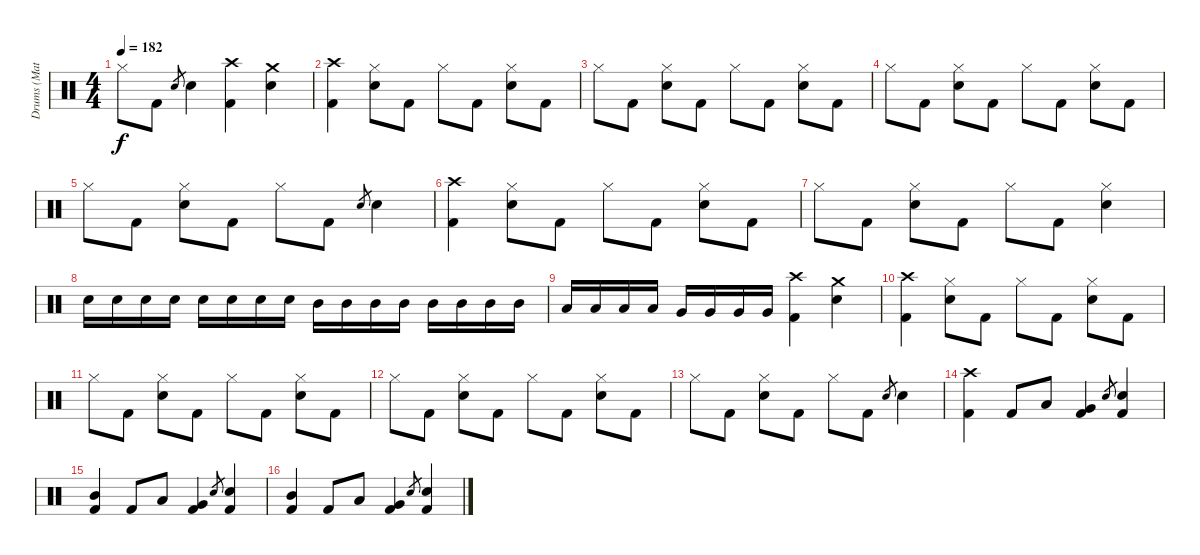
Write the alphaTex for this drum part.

\track ("Drums (Matt)" "Drums (Mat") {instrument percussion}
\staff {score}
\articulation defaults
\ts (4 4)
\tempo 182
\clef neutral
\ks c "Hi-Hat (closed)".8{dy f} "Kick (hit) 2".8 "Snare (hit) 2".8{gr} "Snare (hit) 2".4
("Crash high (hit)" "Kick (hit) 2").4 ("Crash medium (hit)" "Snare (hit) 2").4 |
("Crash high (hit)" "Kick (hit) 2").4 ("Hi-Hat (closed)" "Snare (hit) 2").8 "Kick (hit) 2".8 "Hi-Hat (closed)".8 "Kick (hit) 2".8 ("Hi-Hat (closed)" "Snare (hit) 2").8 "Kick (hit) 2".8 |
"Hi-Hat (closed)".8 "Kick (hit) 2".8 ("Hi-Hat (closed)" "Snare (hit) 2").8 "Kick (hit) 2".8 "Hi-Hat (closed)".8 "Kick (hit) 2".8 ("Hi-Hat (closed)" "Snare (hit) 2").8 "Kick (hit) 2".8 |
"Hi-Hat (closed)".8 "Kick (hit) 2".8 ("Hi-Hat (closed)" "Snare (hit) 2").8 "Kick (hit) 2".8 "Hi-Hat (closed)".8 "Kick (hit) 2".8 ("Hi-Hat (closed)" "Snare (hit) 2").8 "Kick (hit) 2".8 |
"Hi-Hat (closed)".8 "Kick (hit) 2".8 ("Hi-Hat (closed)" "Snare (hit) 2").8 "Kick (hit) 2".8 "Hi-Hat (closed)".8 "Kick (hit) 2".8 "Snare (hit) 2".8{gr} "Snare (hit) 2".4 |
("Crash high (hit)" "Kick (hit) 2").4 ("Hi-Hat (closed)" "Snare (hit) 2").8 "Kick (hit) 2".8 "Hi-Hat (closed)".8 "Kick (hit) 2".8 ("Hi-Hat (closed)" "Snare (hit) 2").8 "Kick (hit) 2".8 |
"Hi-Hat (closed)".8 "Kick (hit) 2".8 ("Hi-Hat (closed)" "Snare (hit) 2").8 "Kick (hit) 2".8 "Hi-Hat (closed)".8 "Kick (hit) 2".8 ("Hi-Hat (closed)" "Snare (hit) 2").4 |
"Snare (hit) 2".16 "Snare (hit) 2".16 "Snare (hit) 2".16 "Snare (hit) 2".16 "Snare (hit) 2".16 "Snare (hit) 2".16 "Snare (hit) 2".16 "Snare (hit) 2".16 "Mid Tom (hit)".16 "Mid Tom (hit)".16 "Mid Tom (hit)".16 "Mid Tom (hit)".16 "Mid Tom (hit)".16 "Mid Tom (hit)".16 "Mid Tom (hit)".16 "Mid Tom (hit)".16 |
"Low Tom (hit)".16 "Low Tom (hit)".16 "Low Tom (hit)".16 "Low Tom (hit)".16 "Very Low Tom (hit)".16 "Very Low Tom (hit)".16 "Very Low Tom (hit)".16 "Very Low Tom (hit)".16 ("Crash high (hit)" "Kick (hit) 2").4 ("Crash medium (hit)" "Snare (hit) 2").4 |
("Crash high (hit)" "Kick (hit) 2").4 ("Hi-Hat (closed)" "Snare (hit) 2").8 "Kick (hit) 2".8 "Hi-Hat (closed)".8 "Kick (hit) 2".8 ("Hi-Hat (closed)" "Snare (hit) 2").8 "Kick (hit) 2".8 |
"Hi-Hat (closed)".8 "Kick (hit) 2".8 ("Hi-Hat (closed)" "Snare (hit) 2").8 "Kick (hit) 2".8 "Hi-Hat (closed)".8 "Kick (hit) 2".8 ("Hi-Hat (closed)" "Snare (hit) 2").8 "Kick (hit) 2".8 |
"Hi-Hat (closed)".8 "Kick (hit) 2".8 ("Hi-Hat (closed)" "Snare (hit) 2").8 "Kick (hit) 2".8 "Hi-Hat (closed)".8 "Kick (hit) 2".8 ("Hi-Hat (closed)" "Snare (hit) 2").8 "Kick (hit) 2".8 |
"Hi-Hat (closed)".8 "Kick (hit) 2".8 ("Hi-Hat (closed)" "Snare (hit) 2").8 "Kick (hit) 2".8 "Hi-Hat (closed)".8 "Kick (hit) 2".8 "Snare (hit) 2".8{gr} "Snare (hit) 2".4 |
("Crash high (hit)" "Kick (hit) 2").4 "Kick (hit) 2".8 "Low Tom (hit)".8 ("Very Low Tom (hit)" "Kick (hit) 2").4 "Snare (hit) 2".8{gr} ("Snare (hit) 2" "Kick (hit) 2").4 |
("Mid Tom (hit)" "Kick (hit) 2").4 "Kick (hit) 2".8 "Low Tom (hit)".8 ("Very Low Tom (hit)" "Kick (hit) 2").4 "Snare (hit) 2".8{gr} ("Snare (hit) 2" "Kick (hit) 2").4 |
("Mid Tom (hit)" "Kick (hit) 2").4 "Kick (hit) 2".8 "Low Tom (hit)".8 ("Very Low Tom (hit)" "Kick (hit) 2").4 "Snare (hit) 2".8{gr} ("Snare (hit) 2" "Kick (hit) 2").4
